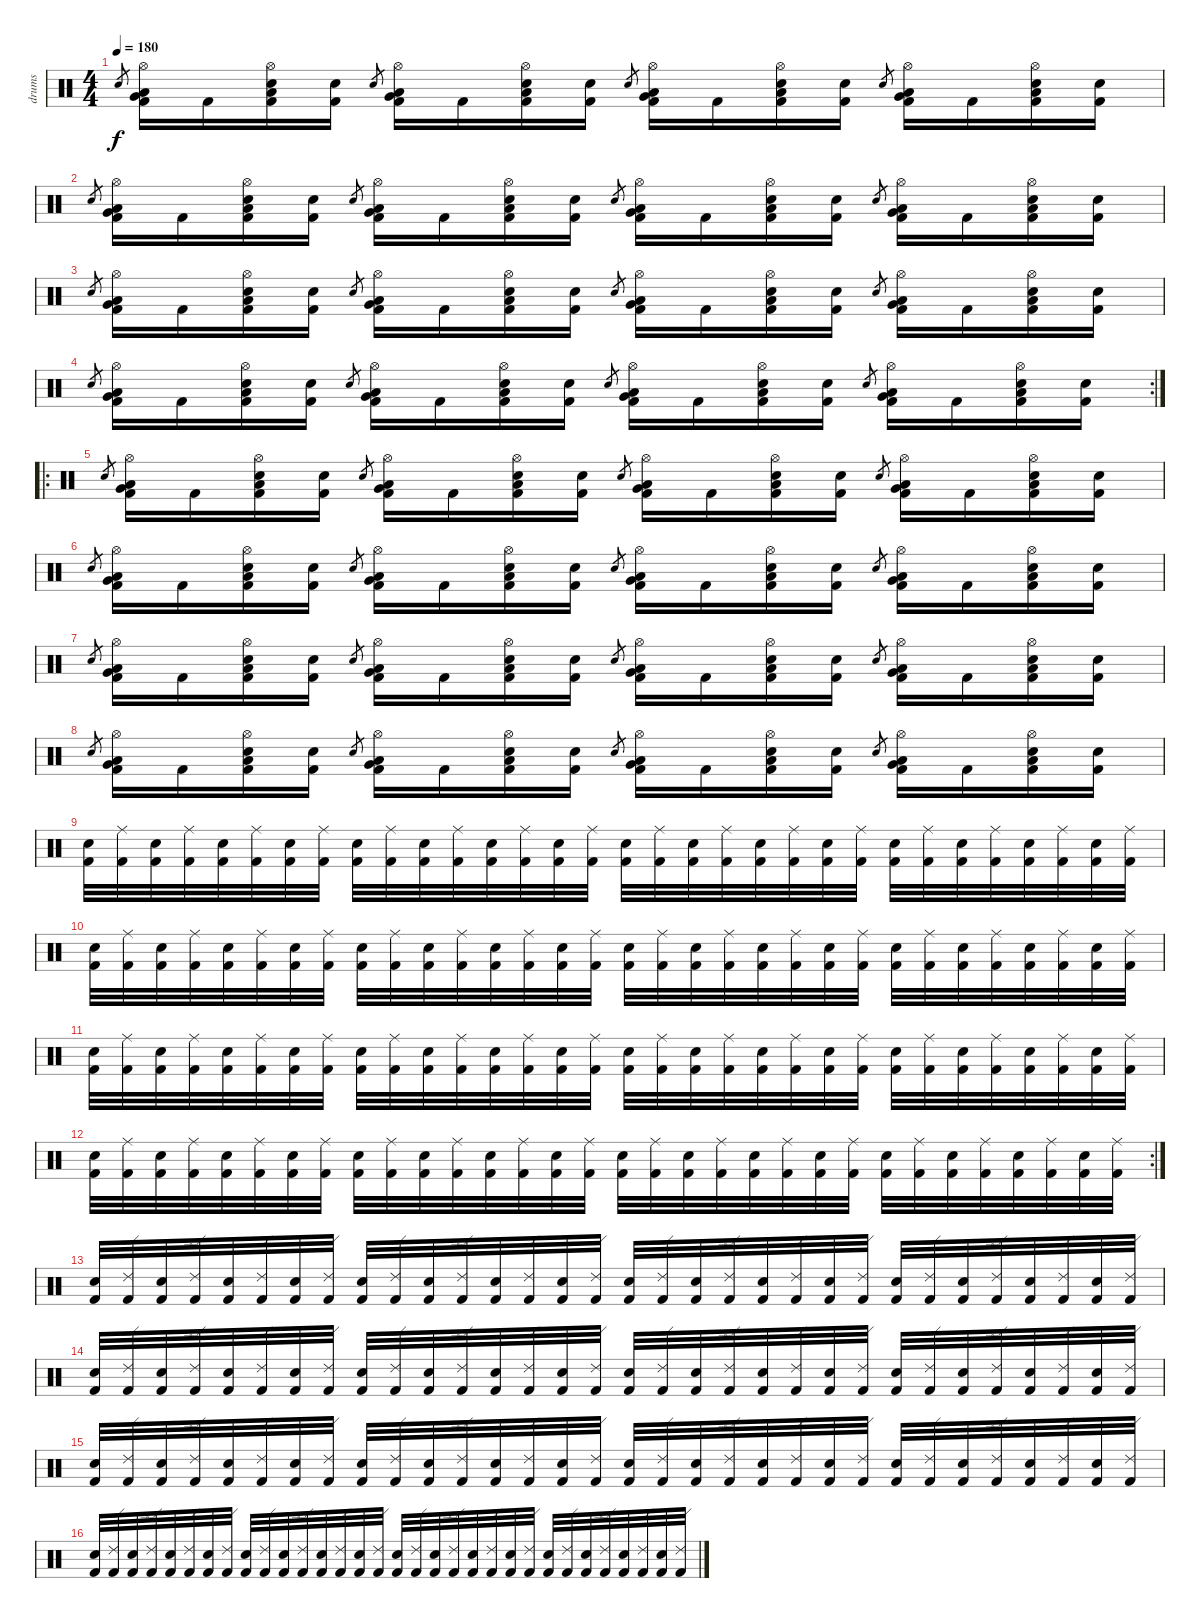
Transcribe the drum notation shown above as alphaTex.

\track ("drums" "drums") {instrument percussion}
\staff {score}
\articulation defaults
\ts (4 4)
\tempo 180
\clef neutral
\ks c "Snare (hit) 2".8{gr dy f}
("Kick (hit) 2" "Very Low Tom (hit)" "Low Floor Tom (hit)" "Hi-Hat (open)").16 "Kick (hit) 2".16 ("Kick (hit) 2" "Snare (hit) 2" "Low Floor Tom (hit)" "Hi-Hat (open)").16 ("Kick (hit) 2" "Snare (hit) 2").16 "Snare (hit) 2".8{gr} ("Kick (hit) 2" "Very Low Tom (hit)" "Low Floor Tom (hit)" "Hi-Hat (open)").16 "Kick (hit) 2".16 ("Kick (hit) 2" "Snare (hit) 2" "Low Floor Tom (hit)" "Hi-Hat (open)").16 ("Kick (hit) 2" "Snare (hit) 2").16 "Snare (hit) 2".8{gr} ("Kick (hit) 2" "Very Low Tom (hit)" "Low Floor Tom (hit)" "Hi-Hat (open)").16 "Kick (hit) 2".16 ("Kick (hit) 2" "Snare (hit) 2" "Low Floor Tom (hit)" "Hi-Hat (open)").16 ("Kick (hit) 2" "Snare (hit) 2").16 "Snare (hit) 2".8{gr} ("Kick (hit) 2" "Very Low Tom (hit)" "Low Floor Tom (hit)" "Hi-Hat (open)").16 "Kick (hit) 2".16 ("Kick (hit) 2" "Snare (hit) 2" "Low Floor Tom (hit)" "Hi-Hat (open)").16 ("Kick (hit) 2" "Snare (hit) 2").16 |
"Snare (hit) 2".8{gr} ("Kick (hit) 2" "Very Low Tom (hit)" "Low Floor Tom (hit)" "Hi-Hat (open)").16 "Kick (hit) 2".16 ("Kick (hit) 2" "Snare (hit) 2" "Low Floor Tom (hit)" "Hi-Hat (open)").16 ("Kick (hit) 2" "Snare (hit) 2").16 "Snare (hit) 2".8{gr} ("Kick (hit) 2" "Very Low Tom (hit)" "Low Floor Tom (hit)" "Hi-Hat (open)").16 "Kick (hit) 2".16 ("Kick (hit) 2" "Snare (hit) 2" "Low Floor Tom (hit)" "Hi-Hat (open)").16 ("Kick (hit) 2" "Snare (hit) 2").16 "Snare (hit) 2".8{gr} ("Kick (hit) 2" "Very Low Tom (hit)" "Low Floor Tom (hit)" "Hi-Hat (open)").16 "Kick (hit) 2".16 ("Kick (hit) 2" "Snare (hit) 2" "Low Floor Tom (hit)" "Hi-Hat (open)").16 ("Kick (hit) 2" "Snare (hit) 2").16 "Snare (hit) 2".8{gr} ("Kick (hit) 2" "Very Low Tom (hit)" "Low Floor Tom (hit)" "Hi-Hat (open)").16 "Kick (hit) 2".16 ("Kick (hit) 2" "Snare (hit) 2" "Low Floor Tom (hit)" "Hi-Hat (open)").16 ("Kick (hit) 2" "Snare (hit) 2").16 |
"Snare (hit) 2".8{gr} ("Kick (hit) 2" "Very Low Tom (hit)" "Low Floor Tom (hit)" "Hi-Hat (open)").16 "Kick (hit) 2".16 ("Kick (hit) 2" "Snare (hit) 2" "Low Floor Tom (hit)" "Hi-Hat (open)").16 ("Kick (hit) 2" "Snare (hit) 2").16 "Snare (hit) 2".8{gr} ("Kick (hit) 2" "Very Low Tom (hit)" "Low Floor Tom (hit)" "Hi-Hat (open)").16 "Kick (hit) 2".16 ("Kick (hit) 2" "Snare (hit) 2" "Low Floor Tom (hit)" "Hi-Hat (open)").16 ("Kick (hit) 2" "Snare (hit) 2").16 "Snare (hit) 2".8{gr} ("Kick (hit) 2" "Very Low Tom (hit)" "Low Floor Tom (hit)" "Hi-Hat (open)").16 "Kick (hit) 2".16 ("Kick (hit) 2" "Snare (hit) 2" "Low Floor Tom (hit)" "Hi-Hat (open)").16 ("Kick (hit) 2" "Snare (hit) 2").16 "Snare (hit) 2".8{gr} ("Kick (hit) 2" "Very Low Tom (hit)" "Low Floor Tom (hit)" "Hi-Hat (open)").16 "Kick (hit) 2".16 ("Kick (hit) 2" "Snare (hit) 2" "Low Floor Tom (hit)" "Hi-Hat (open)").16 ("Kick (hit) 2" "Snare (hit) 2").16 |
\rc 2 "Snare (hit) 2".8{gr}
("Kick (hit) 2" "Very Low Tom (hit)" "Low Floor Tom (hit)" "Hi-Hat (open)").16 "Kick (hit) 2".16 ("Kick (hit) 2" "Snare (hit) 2" "Low Floor Tom (hit)" "Hi-Hat (open)").16 ("Kick (hit) 2" "Snare (hit) 2").16 "Snare (hit) 2".8{gr} ("Kick (hit) 2" "Very Low Tom (hit)" "Low Floor Tom (hit)" "Hi-Hat (open)").16 "Kick (hit) 2".16 ("Kick (hit) 2" "Snare (hit) 2" "Low Floor Tom (hit)" "Hi-Hat (open)").16 ("Kick (hit) 2" "Snare (hit) 2").16 "Snare (hit) 2".8{gr} ("Kick (hit) 2" "Very Low Tom (hit)" "Low Floor Tom (hit)" "Hi-Hat (open)").16 "Kick (hit) 2".16 ("Kick (hit) 2" "Snare (hit) 2" "Low Floor Tom (hit)" "Hi-Hat (open)").16 ("Kick (hit) 2" "Snare (hit) 2").16 "Snare (hit) 2".8{gr} ("Kick (hit) 2" "Very Low Tom (hit)" "Low Floor Tom (hit)" "Hi-Hat (open)").16 "Kick (hit) 2".16 ("Kick (hit) 2" "Snare (hit) 2" "Low Floor Tom (hit)" "Hi-Hat (open)").16 ("Kick (hit) 2" "Snare (hit) 2").16 |
\ro "Snare (hit) 2".8{gr}
("Kick (hit) 2" "Very Low Tom (hit)" "Low Floor Tom (hit)" "Hi-Hat (open)").16 "Kick (hit) 2".16 ("Kick (hit) 2" "Snare (hit) 2" "Low Floor Tom (hit)" "Hi-Hat (open)").16 ("Kick (hit) 2" "Snare (hit) 2").16 "Snare (hit) 2".8{gr} ("Kick (hit) 2" "Very Low Tom (hit)" "Low Floor Tom (hit)" "Hi-Hat (open)").16 "Kick (hit) 2".16 ("Kick (hit) 2" "Snare (hit) 2" "Low Floor Tom (hit)" "Hi-Hat (open)").16 ("Kick (hit) 2" "Snare (hit) 2").16 "Snare (hit) 2".8{gr} ("Kick (hit) 2" "Very Low Tom (hit)" "Low Floor Tom (hit)" "Hi-Hat (open)").16 "Kick (hit) 2".16 ("Kick (hit) 2" "Snare (hit) 2" "Low Floor Tom (hit)" "Hi-Hat (open)").16 ("Kick (hit) 2" "Snare (hit) 2").16 "Snare (hit) 2".8{gr} ("Kick (hit) 2" "Very Low Tom (hit)" "Low Floor Tom (hit)" "Hi-Hat (open)").16 "Kick (hit) 2".16 ("Kick (hit) 2" "Snare (hit) 2" "Low Floor Tom (hit)" "Hi-Hat (open)").16 ("Kick (hit) 2" "Snare (hit) 2").16 |
"Snare (hit) 2".8{gr} ("Kick (hit) 2" "Very Low Tom (hit)" "Low Floor Tom (hit)" "Hi-Hat (open)").16 "Kick (hit) 2".16 ("Kick (hit) 2" "Snare (hit) 2" "Low Floor Tom (hit)" "Hi-Hat (open)").16 ("Kick (hit) 2" "Snare (hit) 2").16 "Snare (hit) 2".8{gr} ("Kick (hit) 2" "Very Low Tom (hit)" "Low Floor Tom (hit)" "Hi-Hat (open)").16 "Kick (hit) 2".16 ("Kick (hit) 2" "Snare (hit) 2" "Low Floor Tom (hit)" "Hi-Hat (open)").16 ("Kick (hit) 2" "Snare (hit) 2").16 "Snare (hit) 2".8{gr} ("Kick (hit) 2" "Very Low Tom (hit)" "Low Floor Tom (hit)" "Hi-Hat (open)").16 "Kick (hit) 2".16 ("Kick (hit) 2" "Snare (hit) 2" "Low Floor Tom (hit)" "Hi-Hat (open)").16 ("Kick (hit) 2" "Snare (hit) 2").16 "Snare (hit) 2".8{gr} ("Kick (hit) 2" "Very Low Tom (hit)" "Low Floor Tom (hit)" "Hi-Hat (open)").16 "Kick (hit) 2".16 ("Kick (hit) 2" "Snare (hit) 2" "Low Floor Tom (hit)" "Hi-Hat (open)").16 ("Kick (hit) 2" "Snare (hit) 2").16 |
"Snare (hit) 2".8{gr} ("Kick (hit) 2" "Very Low Tom (hit)" "Low Floor Tom (hit)" "Hi-Hat (open)").16 "Kick (hit) 2".16 ("Kick (hit) 2" "Snare (hit) 2" "Low Floor Tom (hit)" "Hi-Hat (open)").16 ("Kick (hit) 2" "Snare (hit) 2").16 "Snare (hit) 2".8{gr} ("Kick (hit) 2" "Very Low Tom (hit)" "Low Floor Tom (hit)" "Hi-Hat (open)").16 "Kick (hit) 2".16 ("Kick (hit) 2" "Snare (hit) 2" "Low Floor Tom (hit)" "Hi-Hat (open)").16 ("Kick (hit) 2" "Snare (hit) 2").16 "Snare (hit) 2".8{gr} ("Kick (hit) 2" "Very Low Tom (hit)" "Low Floor Tom (hit)" "Hi-Hat (open)").16 "Kick (hit) 2".16 ("Kick (hit) 2" "Snare (hit) 2" "Low Floor Tom (hit)" "Hi-Hat (open)").16 ("Kick (hit) 2" "Snare (hit) 2").16 "Snare (hit) 2".8{gr} ("Kick (hit) 2" "Very Low Tom (hit)" "Low Floor Tom (hit)" "Hi-Hat (open)").16 "Kick (hit) 2".16 ("Kick (hit) 2" "Snare (hit) 2" "Low Floor Tom (hit)" "Hi-Hat (open)").16 ("Kick (hit) 2" "Snare (hit) 2").16 |
"Snare (hit) 2".8{gr} ("Kick (hit) 2" "Very Low Tom (hit)" "Low Floor Tom (hit)" "Hi-Hat (open)").16 "Kick (hit) 2".16 ("Kick (hit) 2" "Snare (hit) 2" "Low Floor Tom (hit)" "Hi-Hat (open)").16 ("Kick (hit) 2" "Snare (hit) 2").16 "Snare (hit) 2".8{gr} ("Kick (hit) 2" "Very Low Tom (hit)" "Low Floor Tom (hit)" "Hi-Hat (open)").16 "Kick (hit) 2".16 ("Kick (hit) 2" "Snare (hit) 2" "Low Floor Tom (hit)" "Hi-Hat (open)").16 ("Kick (hit) 2" "Snare (hit) 2").16 "Snare (hit) 2".8{gr} ("Kick (hit) 2" "Very Low Tom (hit)" "Low Floor Tom (hit)" "Hi-Hat (open)").16 "Kick (hit) 2".16 ("Kick (hit) 2" "Snare (hit) 2" "Low Floor Tom (hit)" "Hi-Hat (open)").16 ("Kick (hit) 2" "Snare (hit) 2").16 "Snare (hit) 2".8{gr} ("Kick (hit) 2" "Very Low Tom (hit)" "Low Floor Tom (hit)" "Hi-Hat (open)").16 "Kick (hit) 2".16 ("Kick (hit) 2" "Snare (hit) 2" "Low Floor Tom (hit)" "Hi-Hat (open)").16 ("Kick (hit) 2" "Snare (hit) 2").16 |
("Kick (hit) 2" "Electric Snare (hit)").32 ("Kick (hit) 2" "Ride (middle)").32 ("Kick (hit) 2" "Electric Snare (hit)").32 ("Kick (hit) 2" "Ride (middle)").32 ("Kick (hit) 2" "Electric Snare (hit)").32 ("Kick (hit) 2" "Ride (middle)").32 ("Kick (hit) 2" "Electric Snare (hit)").32 ("Kick (hit) 2" "Ride (middle)").32 ("Kick (hit) 2" "Electric Snare (hit)").32 ("Kick (hit) 2" "Ride (middle)").32 ("Kick (hit) 2" "Electric Snare (hit)").32 ("Kick (hit) 2" "Ride (middle)").32 ("Kick (hit) 2" "Electric Snare (hit)").32 ("Kick (hit) 2" "Ride (middle)").32 ("Kick (hit) 2" "Electric Snare (hit)").32 ("Kick (hit) 2" "Ride (middle)").32 ("Kick (hit) 2" "Electric Snare (hit)").32 ("Kick (hit) 2" "Ride (middle)").32 ("Kick (hit) 2" "Electric Snare (hit)").32 ("Kick (hit) 2" "Ride (middle)").32 ("Kick (hit) 2" "Electric Snare (hit)").32 ("Kick (hit) 2" "Ride (middle)").32 ("Kick (hit) 2" "Electric Snare (hit)").32 ("Kick (hit) 2" "Ride (middle)").32 ("Kick (hit) 2" "Electric Snare (hit)").32 ("Kick (hit) 2" "Ride (middle)").32 ("Kick (hit) 2" "Electric Snare (hit)").32 ("Kick (hit) 2" "Ride (middle)").32 ("Kick (hit) 2" "Electric Snare (hit)").32 ("Kick (hit) 2" "Ride (middle)").32 ("Kick (hit) 2" "Electric Snare (hit)").32 ("Kick (hit) 2" "Ride (middle)").32 |
("Kick (hit) 2" "Electric Snare (hit)").32 ("Kick (hit) 2" "Ride (middle)").32 ("Kick (hit) 2" "Electric Snare (hit)").32 ("Kick (hit) 2" "Ride (middle)").32 ("Kick (hit) 2" "Electric Snare (hit)").32 ("Kick (hit) 2" "Ride (middle)").32 ("Kick (hit) 2" "Electric Snare (hit)").32 ("Kick (hit) 2" "Ride (middle)").32 ("Kick (hit) 2" "Electric Snare (hit)").32 ("Kick (hit) 2" "Ride (middle)").32 ("Kick (hit) 2" "Electric Snare (hit)").32 ("Kick (hit) 2" "Ride (middle)").32 ("Kick (hit) 2" "Electric Snare (hit)").32 ("Kick (hit) 2" "Ride (middle)").32 ("Kick (hit) 2" "Electric Snare (hit)").32 ("Kick (hit) 2" "Ride (middle)").32 ("Kick (hit) 2" "Electric Snare (hit)").32 ("Kick (hit) 2" "Ride (middle)").32 ("Kick (hit) 2" "Electric Snare (hit)").32 ("Kick (hit) 2" "Ride (middle)").32 ("Kick (hit) 2" "Electric Snare (hit)").32 ("Kick (hit) 2" "Ride (middle)").32 ("Kick (hit) 2" "Electric Snare (hit)").32 ("Kick (hit) 2" "Ride (middle)").32 ("Kick (hit) 2" "Electric Snare (hit)").32 ("Kick (hit) 2" "Ride (middle)").32 ("Kick (hit) 2" "Electric Snare (hit)").32 ("Kick (hit) 2" "Ride (middle)").32 ("Kick (hit) 2" "Electric Snare (hit)").32 ("Kick (hit) 2" "Ride (middle)").32 ("Kick (hit) 2" "Electric Snare (hit)").32 ("Kick (hit) 2" "Ride (middle)").32 |
("Kick (hit) 2" "Electric Snare (hit)").32 ("Kick (hit) 2" "Ride (middle)").32 ("Kick (hit) 2" "Electric Snare (hit)").32 ("Kick (hit) 2" "Ride (middle)").32 ("Kick (hit) 2" "Electric Snare (hit)").32 ("Kick (hit) 2" "Ride (middle)").32 ("Kick (hit) 2" "Electric Snare (hit)").32 ("Kick (hit) 2" "Ride (middle)").32 ("Kick (hit) 2" "Electric Snare (hit)").32 ("Kick (hit) 2" "Ride (middle)").32 ("Kick (hit) 2" "Electric Snare (hit)").32 ("Kick (hit) 2" "Ride (middle)").32 ("Kick (hit) 2" "Electric Snare (hit)").32 ("Kick (hit) 2" "Ride (middle)").32 ("Kick (hit) 2" "Electric Snare (hit)").32 ("Kick (hit) 2" "Ride (middle)").32 ("Kick (hit) 2" "Electric Snare (hit)").32 ("Kick (hit) 2" "Ride (middle)").32 ("Kick (hit) 2" "Electric Snare (hit)").32 ("Kick (hit) 2" "Ride (middle)").32 ("Kick (hit) 2" "Electric Snare (hit)").32 ("Kick (hit) 2" "Ride (middle)").32 ("Kick (hit) 2" "Electric Snare (hit)").32 ("Kick (hit) 2" "Ride (middle)").32 ("Kick (hit) 2" "Electric Snare (hit)").32 ("Kick (hit) 2" "Ride (middle)").32 ("Kick (hit) 2" "Electric Snare (hit)").32 ("Kick (hit) 2" "Ride (middle)").32 ("Kick (hit) 2" "Electric Snare (hit)").32 ("Kick (hit) 2" "Ride (middle)").32 ("Kick (hit) 2" "Electric Snare (hit)").32 ("Kick (hit) 2" "Ride (middle)").32 |
\rc 2
("Kick (hit) 2" "Electric Snare (hit)").32 ("Kick (hit) 2" "Ride (middle)").32 ("Kick (hit) 2" "Electric Snare (hit)").32 ("Kick (hit) 2" "Ride (middle)").32 ("Kick (hit) 2" "Electric Snare (hit)").32 ("Kick (hit) 2" "Ride (middle)").32 ("Kick (hit) 2" "Electric Snare (hit)").32 ("Kick (hit) 2" "Ride (middle)").32 ("Kick (hit) 2" "Electric Snare (hit)").32 ("Kick (hit) 2" "Ride (middle)").32 ("Kick (hit) 2" "Electric Snare (hit)").32 ("Kick (hit) 2" "Ride (middle)").32 ("Kick (hit) 2" "Electric Snare (hit)").32 ("Kick (hit) 2" "Ride (middle)").32 ("Kick (hit) 2" "Electric Snare (hit)").32 ("Kick (hit) 2" "Ride (middle)").32 ("Kick (hit) 2" "Electric Snare (hit)").32 ("Kick (hit) 2" "Ride (middle)").32 ("Kick (hit) 2" "Electric Snare (hit)").32 ("Kick (hit) 2" "Ride (middle)").32 ("Kick (hit) 2" "Electric Snare (hit)").32 ("Kick (hit) 2" "Ride (middle)").32 ("Kick (hit) 2" "Electric Snare (hit)").32 ("Kick (hit) 2" "Ride (middle)").32 ("Kick (hit) 2" "Electric Snare (hit)").32 ("Kick (hit) 2" "Ride (middle)").32 ("Kick (hit) 2" "Electric Snare (hit)").32 ("Kick (hit) 2" "Ride (middle)").32 ("Kick (hit) 2" "Electric Snare (hit)").32 ("Kick (hit) 2" "Ride (middle)").32 ("Kick (hit) 2" "Electric Snare (hit)").32 ("Kick (hit) 2" "Ride (middle)").32 |
("Kick (hit) 2" "Electric Snare (hit)").32 ("Kick (hit) 2" "Ride (edge) 2").32 ("Kick (hit) 2" "Electric Snare (hit)").32 ("Kick (hit) 2" "Ride (edge) 2").32 ("Kick (hit) 2" "Electric Snare (hit)").32 ("Kick (hit) 2" "Ride (edge) 2").32 ("Kick (hit) 2" "Electric Snare (hit)").32 ("Kick (hit) 2" "Ride (edge) 2").32 ("Kick (hit) 2" "Electric Snare (hit)").32 ("Kick (hit) 2" "Ride (edge) 2").32 ("Kick (hit) 2" "Electric Snare (hit)").32 ("Kick (hit) 2" "Ride (edge) 2").32 ("Kick (hit) 2" "Electric Snare (hit)").32 ("Kick (hit) 2" "Ride (edge) 2").32 ("Kick (hit) 2" "Electric Snare (hit)").32 ("Kick (hit) 2" "Ride (edge) 2").32 ("Kick (hit) 2" "Electric Snare (hit)").32 ("Kick (hit) 2" "Ride (edge) 2").32 ("Kick (hit) 2" "Electric Snare (hit)").32 ("Kick (hit) 2" "Ride (edge) 2").32 ("Kick (hit) 2" "Electric Snare (hit)").32 ("Kick (hit) 2" "Ride (edge) 2").32 ("Kick (hit) 2" "Electric Snare (hit)").32 ("Kick (hit) 2" "Ride (edge) 2").32 ("Kick (hit) 2" "Electric Snare (hit)").32 ("Kick (hit) 2" "Ride (edge) 2").32 ("Kick (hit) 2" "Electric Snare (hit)").32 ("Kick (hit) 2" "Ride (edge) 2").32 ("Kick (hit) 2" "Electric Snare (hit)").32 ("Kick (hit) 2" "Ride (edge) 2").32 ("Kick (hit) 2" "Electric Snare (hit)").32 ("Kick (hit) 2" "Ride (edge) 2").32 |
("Kick (hit) 2" "Electric Snare (hit)").32 ("Kick (hit) 2" "Ride (edge) 2").32 ("Kick (hit) 2" "Electric Snare (hit)").32 ("Kick (hit) 2" "Ride (edge) 2").32 ("Kick (hit) 2" "Electric Snare (hit)").32 ("Kick (hit) 2" "Ride (edge) 2").32 ("Kick (hit) 2" "Electric Snare (hit)").32 ("Kick (hit) 2" "Ride (edge) 2").32 ("Kick (hit) 2" "Electric Snare (hit)").32 ("Kick (hit) 2" "Ride (edge) 2").32 ("Kick (hit) 2" "Electric Snare (hit)").32 ("Kick (hit) 2" "Ride (edge) 2").32 ("Kick (hit) 2" "Electric Snare (hit)").32 ("Kick (hit) 2" "Ride (edge) 2").32 ("Kick (hit) 2" "Electric Snare (hit)").32 ("Kick (hit) 2" "Ride (edge) 2").32 ("Kick (hit) 2" "Electric Snare (hit)").32 ("Kick (hit) 2" "Ride (edge) 2").32 ("Kick (hit) 2" "Electric Snare (hit)").32 ("Kick (hit) 2" "Ride (edge) 2").32 ("Kick (hit) 2" "Electric Snare (hit)").32 ("Kick (hit) 2" "Ride (edge) 2").32 ("Kick (hit) 2" "Electric Snare (hit)").32 ("Kick (hit) 2" "Ride (edge) 2").32 ("Kick (hit) 2" "Electric Snare (hit)").32 ("Kick (hit) 2" "Ride (edge) 2").32 ("Kick (hit) 2" "Electric Snare (hit)").32 ("Kick (hit) 2" "Ride (edge) 2").32 ("Kick (hit) 2" "Electric Snare (hit)").32 ("Kick (hit) 2" "Ride (edge) 2").32 ("Kick (hit) 2" "Electric Snare (hit)").32 ("Kick (hit) 2" "Ride (edge) 2").32 |
("Kick (hit) 2" "Electric Snare (hit)").32 ("Kick (hit) 2" "Ride (edge) 2").32 ("Kick (hit) 2" "Electric Snare (hit)").32 ("Kick (hit) 2" "Ride (edge) 2").32 ("Kick (hit) 2" "Electric Snare (hit)").32 ("Kick (hit) 2" "Ride (edge) 2").32 ("Kick (hit) 2" "Electric Snare (hit)").32 ("Kick (hit) 2" "Ride (edge) 2").32 ("Kick (hit) 2" "Electric Snare (hit)").32 ("Kick (hit) 2" "Ride (edge) 2").32 ("Kick (hit) 2" "Electric Snare (hit)").32 ("Kick (hit) 2" "Ride (edge) 2").32 ("Kick (hit) 2" "Electric Snare (hit)").32 ("Kick (hit) 2" "Ride (edge) 2").32 ("Kick (hit) 2" "Electric Snare (hit)").32 ("Kick (hit) 2" "Ride (edge) 2").32 ("Kick (hit) 2" "Electric Snare (hit)").32 ("Kick (hit) 2" "Ride (edge) 2").32 ("Kick (hit) 2" "Electric Snare (hit)").32 ("Kick (hit) 2" "Ride (edge) 2").32 ("Kick (hit) 2" "Electric Snare (hit)").32 ("Kick (hit) 2" "Ride (edge) 2").32 ("Kick (hit) 2" "Electric Snare (hit)").32 ("Kick (hit) 2" "Ride (edge) 2").32 ("Kick (hit) 2" "Electric Snare (hit)").32 ("Kick (hit) 2" "Ride (edge) 2").32 ("Kick (hit) 2" "Electric Snare (hit)").32 ("Kick (hit) 2" "Ride (edge) 2").32 ("Kick (hit) 2" "Electric Snare (hit)").32 ("Kick (hit) 2" "Ride (edge) 2").32 ("Kick (hit) 2" "Electric Snare (hit)").32 ("Kick (hit) 2" "Ride (edge) 2").32 |
("Kick (hit) 2" "Electric Snare (hit)").32 ("Kick (hit) 2" "Ride (edge) 2").32 ("Kick (hit) 2" "Electric Snare (hit)").32 ("Kick (hit) 2" "Ride (edge) 2").32 ("Kick (hit) 2" "Electric Snare (hit)").32 ("Kick (hit) 2" "Ride (edge) 2").32 ("Kick (hit) 2" "Electric Snare (hit)").32 ("Kick (hit) 2" "Ride (edge) 2").32 ("Kick (hit) 2" "Electric Snare (hit)").32 ("Kick (hit) 2" "Ride (edge) 2").32 ("Kick (hit) 2" "Electric Snare (hit)").32 ("Kick (hit) 2" "Ride (edge) 2").32 ("Kick (hit) 2" "Electric Snare (hit)").32 ("Kick (hit) 2" "Ride (edge) 2").32 ("Kick (hit) 2" "Electric Snare (hit)").32 ("Kick (hit) 2" "Ride (edge) 2").32 ("Kick (hit) 2" "Electric Snare (hit)").32 ("Kick (hit) 2" "Ride (edge) 2").32 ("Kick (hit) 2" "Electric Snare (hit)").32 ("Kick (hit) 2" "Ride (edge) 2").32 ("Kick (hit) 2" "Electric Snare (hit)").32 ("Kick (hit) 2" "Ride (edge) 2").32 ("Kick (hit) 2" "Electric Snare (hit)").32 ("Kick (hit) 2" "Ride (edge) 2").32 ("Kick (hit) 2" "Electric Snare (hit)").32 ("Kick (hit) 2" "Ride (edge) 2").32 ("Kick (hit) 2" "Electric Snare (hit)").32 ("Kick (hit) 2" "Ride (edge) 2").32 ("Kick (hit) 2" "Electric Snare (hit)").32 ("Kick (hit) 2" "Ride (edge) 2").32 ("Kick (hit) 2" "Electric Snare (hit)").32 ("Kick (hit) 2" "Ride (edge) 2").32
